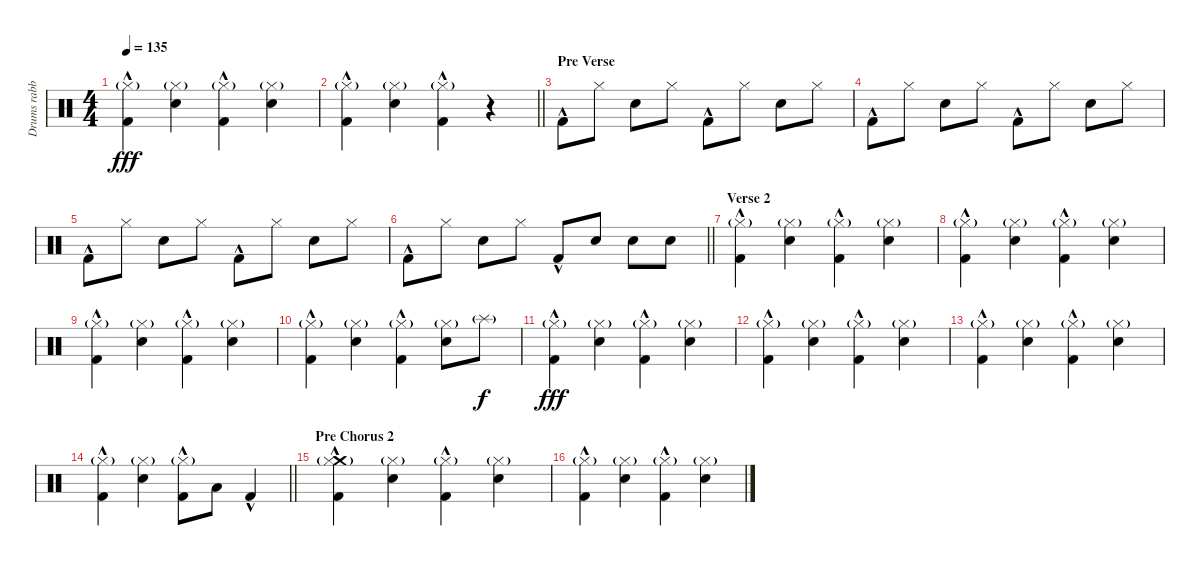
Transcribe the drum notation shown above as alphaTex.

\track ("Drums rabbit" "Drums rabb") {instrument percussion}
\staff {score}
\articulation defaults
\ts (4 4)
\tempo 135
\clef neutral
\ks c
("Kick (hit) 2"{hac} "Hi-Hat (closed)"{g}).4{dy fff} ("Electric Snare (hit)" "Hi-Hat (closed)"{g}).4 ("Kick (hit) 2"{hac} "Hi-Hat (closed)"{g}).4 ("Electric Snare (hit)" "Hi-Hat (closed)"{g}).4 |
\barLineRight lightlight
("Kick (hit) 2"{hac} "Hi-Hat (closed)"{g}).4 ("Electric Snare (hit)" "Hi-Hat (closed)"{g}).4 ("Kick (hit) 2"{hac} "Hi-Hat (closed)"{g}).4 r.4 |
\section ("" "Pre Verse")
"Kick (hit) 2"{hac}.8 "Hi-Hat (closed)".8 "Electric Snare (hit)".8 "Hi-Hat (closed)".8 "Kick (hit) 2"{hac}.8 "Hi-Hat (closed)".8 "Electric Snare (hit)".8 "Hi-Hat (closed)".8 |
"Kick (hit) 2"{hac}.8 "Hi-Hat (closed)".8 "Electric Snare (hit)".8 "Hi-Hat (closed)".8 "Kick (hit) 2"{hac}.8 "Hi-Hat (closed)".8 "Electric Snare (hit)".8 "Hi-Hat (closed)".8 |
"Kick (hit) 2"{hac}.8 "Hi-Hat (closed)".8 "Electric Snare (hit)".8 "Hi-Hat (closed)".8 "Kick (hit) 2"{hac}.8 "Hi-Hat (closed)".8 "Electric Snare (hit)".8 "Hi-Hat (closed)".8 |
\barLineRight lightlight "Kick (hit) 2"{hac}.8 "Hi-Hat (closed)".8 "Electric Snare (hit)".8 "Hi-Hat (closed)".8 "Kick (hit) 2"{hac}.8 "Electric Snare (hit)".8 "Electric Snare (hit)".8 "Electric Snare (hit)".8
|
\section ("" "Verse 2")
("Kick (hit) 2"{hac} "Hi-Hat (closed)"{g}).4 ("Electric Snare (hit)" "Hi-Hat (closed)"{g}).4 ("Kick (hit) 2"{hac} "Hi-Hat (closed)"{g}).4 ("Electric Snare (hit)" "Hi-Hat (closed)"{g}).4 |
("Kick (hit) 2"{hac} "Hi-Hat (closed)"{g}).4 ("Electric Snare (hit)" "Hi-Hat (closed)"{g}).4 ("Kick (hit) 2"{hac} "Hi-Hat (closed)"{g}).4 ("Electric Snare (hit)" "Hi-Hat (closed)"{g}).4 |
("Kick (hit) 2"{hac} "Hi-Hat (closed)"{g}).4 ("Electric Snare (hit)" "Hi-Hat (closed)"{g}).4 ("Kick (hit) 2"{hac} "Hi-Hat (closed)"{g}).4 ("Electric Snare (hit)" "Hi-Hat (closed)"{g}).4 |
("Kick (hit) 2"{hac} "Hi-Hat (closed)"{g}).4 ("Electric Snare (hit)" "Hi-Hat (closed)"{g}).4 ("Kick (hit) 2"{hac} "Hi-Hat (closed)"{g}).4 ("Electric Snare (hit)" "Hi-Hat (closed)"{g}).8 "Splash (hit)"{g}.8{dy f} |
("Kick (hit) 2"{hac} "Hi-Hat (closed)"{g}).4{dy fff} ("Electric Snare (hit)" "Hi-Hat (closed)"{g}).4 ("Kick (hit) 2"{hac} "Hi-Hat (closed)"{g}).4 ("Electric Snare (hit)" "Hi-Hat (closed)"{g}).4 |
("Kick (hit) 2"{hac} "Hi-Hat (closed)"{g}).4 ("Electric Snare (hit)" "Hi-Hat (closed)"{g}).4 ("Kick (hit) 2"{hac} "Hi-Hat (closed)"{g}).4 ("Electric Snare (hit)" "Hi-Hat (closed)"{g}).4 |
("Kick (hit) 2"{hac} "Hi-Hat (closed)"{g}).4 ("Electric Snare (hit)" "Hi-Hat (closed)"{g}).4 ("Kick (hit) 2"{hac} "Hi-Hat (closed)"{g}).4 ("Electric Snare (hit)" "Hi-Hat (closed)"{g}).4 |
\barLineRight lightlight
("Kick (hit) 2"{hac} "Hi-Hat (closed)"{g}).4 ("Electric Snare (hit)" "Hi-Hat (closed)"{g}).4 ("Kick (hit) 2"{hac} "Hi-Hat (closed)"{g}).8 "Low Floor Tom (hit)".8 "Kick (hit) 2"{hac}.4 |
\section ("" "Pre Chorus 2")
("Crash medium (hit)" "Kick (hit) 2"{hac} "Hi-Hat (closed)"{g}).4 ("Electric Snare (hit)" "Hi-Hat (closed)"{g}).4 ("Kick (hit) 2"{hac} "Hi-Hat (closed)"{g}).4 ("Electric Snare (hit)" "Hi-Hat (closed)"{g}).4 |
("Kick (hit) 2"{hac} "Hi-Hat (closed)"{g}).4 ("Electric Snare (hit)" "Hi-Hat (closed)"{g}).4 ("Kick (hit) 2"{hac} "Hi-Hat (closed)"{g}).4 ("Electric Snare (hit)" "Hi-Hat (closed)"{g}).4
